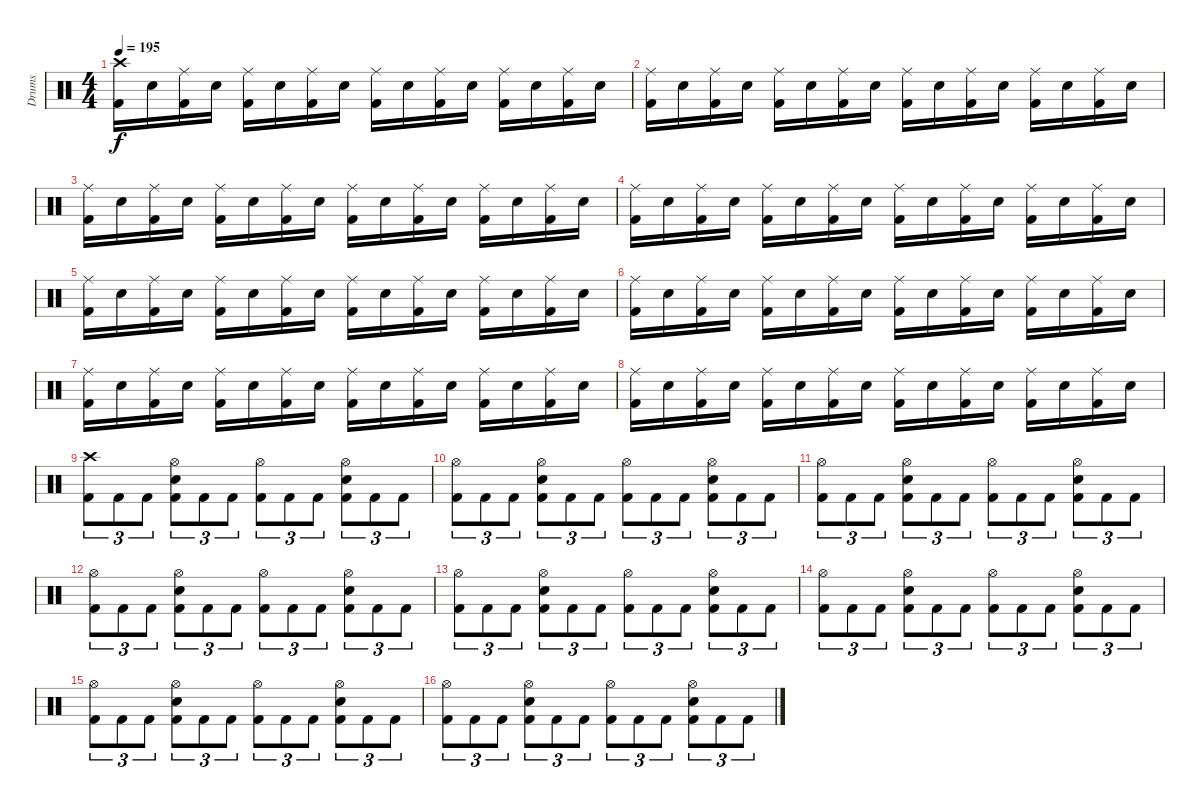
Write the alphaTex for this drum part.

\track ("Drums" "Drums") {instrument percussion}
\staff {score}
\articulation defaults
\ts (4 4)
\tempo 195
\clef neutral
\ks c
("Crash high (hit)" "Kick (hit) 2").16{dy f} "Snare (hit) 2".16 ("Ride (middle)" "Kick (hit) 2").16 "Snare (hit) 2".16 ("Ride (middle)" "Kick (hit) 2").16 "Snare (hit) 2".16 ("Ride (middle)" "Kick (hit) 2").16 "Snare (hit) 2".16 ("Ride (middle)" "Kick (hit) 2").16 "Snare (hit) 2".16 ("Ride (middle)" "Kick (hit) 2").16 "Snare (hit) 2".16 ("Ride (middle)" "Kick (hit) 2").16 "Snare (hit) 2".16 ("Ride (middle)" "Kick (hit) 2").16 "Snare (hit) 2".16 |
("Ride (middle)" "Kick (hit) 2").16 "Snare (hit) 2".16 ("Ride (middle)" "Kick (hit) 2").16 "Snare (hit) 2".16 ("Ride (middle)" "Kick (hit) 2").16 "Snare (hit) 2".16 ("Ride (middle)" "Kick (hit) 2").16 "Snare (hit) 2".16 ("Ride (middle)" "Kick (hit) 2").16 "Snare (hit) 2".16 ("Ride (middle)" "Kick (hit) 2").16 "Snare (hit) 2".16 ("Ride (middle)" "Kick (hit) 2").16 "Snare (hit) 2".16 ("Ride (middle)" "Kick (hit) 2").16 "Snare (hit) 2".16 |
("Ride (middle)" "Kick (hit) 2").16 "Snare (hit) 2".16 ("Ride (middle)" "Kick (hit) 2").16 "Snare (hit) 2".16 ("Ride (middle)" "Kick (hit) 2").16 "Snare (hit) 2".16 ("Ride (middle)" "Kick (hit) 2").16 "Snare (hit) 2".16 ("Ride (middle)" "Kick (hit) 2").16 "Snare (hit) 2".16 ("Ride (middle)" "Kick (hit) 2").16 "Snare (hit) 2".16 ("Ride (middle)" "Kick (hit) 2").16 "Snare (hit) 2".16 ("Ride (middle)" "Kick (hit) 2").16 "Snare (hit) 2".16 |
("Ride (middle)" "Kick (hit) 2").16 "Snare (hit) 2".16 ("Ride (middle)" "Kick (hit) 2").16 "Snare (hit) 2".16 ("Ride (middle)" "Kick (hit) 2").16 "Snare (hit) 2".16 ("Ride (middle)" "Kick (hit) 2").16 "Snare (hit) 2".16 ("Ride (middle)" "Kick (hit) 2").16 "Snare (hit) 2".16 ("Ride (middle)" "Kick (hit) 2").16 "Snare (hit) 2".16 ("Ride (middle)" "Kick (hit) 2").16 "Snare (hit) 2".16 ("Ride (middle)" "Kick (hit) 2").16 "Snare (hit) 2".16 |
("Ride (middle)" "Kick (hit) 2").16 "Snare (hit) 2".16 ("Ride (middle)" "Kick (hit) 2").16 "Snare (hit) 2".16 ("Ride (middle)" "Kick (hit) 2").16 "Snare (hit) 2".16 ("Ride (middle)" "Kick (hit) 2").16 "Snare (hit) 2".16 ("Ride (middle)" "Kick (hit) 2").16 "Snare (hit) 2".16 ("Ride (middle)" "Kick (hit) 2").16 "Snare (hit) 2".16 ("Ride (middle)" "Kick (hit) 2").16 "Snare (hit) 2".16 ("Ride (middle)" "Kick (hit) 2").16 "Snare (hit) 2".16 |
("Ride (middle)" "Kick (hit) 2").16 "Snare (hit) 2".16 ("Ride (middle)" "Kick (hit) 2").16 "Snare (hit) 2".16 ("Ride (middle)" "Kick (hit) 2").16 "Snare (hit) 2".16 ("Ride (middle)" "Kick (hit) 2").16 "Snare (hit) 2".16 ("Ride (middle)" "Kick (hit) 2").16 "Snare (hit) 2".16 ("Ride (middle)" "Kick (hit) 2").16 "Snare (hit) 2".16 ("Ride (middle)" "Kick (hit) 2").16 "Snare (hit) 2".16 ("Ride (middle)" "Kick (hit) 2").16 "Snare (hit) 2".16 |
("Ride (middle)" "Kick (hit) 2").16 "Snare (hit) 2".16 ("Ride (middle)" "Kick (hit) 2").16 "Snare (hit) 2".16 ("Ride (middle)" "Kick (hit) 2").16 "Snare (hit) 2".16 ("Ride (middle)" "Kick (hit) 2").16 "Snare (hit) 2".16 ("Ride (middle)" "Kick (hit) 2").16 "Snare (hit) 2".16 ("Ride (middle)" "Kick (hit) 2").16 "Snare (hit) 2".16 ("Ride (middle)" "Kick (hit) 2").16 "Snare (hit) 2".16 ("Ride (middle)" "Kick (hit) 2").16 "Snare (hit) 2".16 |
("Ride (middle)" "Kick (hit) 2").16 "Snare (hit) 2".16 ("Ride (middle)" "Kick (hit) 2").16 "Snare (hit) 2".16 ("Ride (middle)" "Kick (hit) 2").16 "Snare (hit) 2".16 ("Ride (middle)" "Kick (hit) 2").16 "Snare (hit) 2".16 ("Ride (middle)" "Kick (hit) 2").16 "Snare (hit) 2".16 ("Ride (middle)" "Kick (hit) 2").16 "Snare (hit) 2".16 ("Ride (middle)" "Kick (hit) 2").16 "Snare (hit) 2".16 ("Ride (middle)" "Kick (hit) 2").16 "Snare (hit) 2".16 |
("Crash high (hit)" "Kick (hit) 2").8{tu (3 2)} "Kick (hit) 2".8{tu (3 2)} "Kick (hit) 2".8{tu (3 2)} ("Hi-Hat (open)" "Snare (hit) 2" "Kick (hit) 2").8{tu (3 2)} "Kick (hit) 2".8{tu (3 2)} "Kick (hit) 2".8{tu (3 2)} ("Hi-Hat (open)" "Kick (hit) 2").8{tu (3 2)} "Kick (hit) 2".8{tu (3 2)} "Kick (hit) 2".8{tu (3 2)} ("Hi-Hat (open)" "Snare (hit) 2" "Kick (hit) 2").8{tu (3 2)} "Kick (hit) 2".8{tu (3 2)} "Kick (hit) 2".8{tu (3 2)} |
("Hi-Hat (open)" "Kick (hit) 2").8{tu (3 2)} "Kick (hit) 2".8{tu (3 2)} "Kick (hit) 2".8{tu (3 2)} ("Hi-Hat (open)" "Snare (hit) 2" "Kick (hit) 2").8{tu (3 2)} "Kick (hit) 2".8{tu (3 2)} "Kick (hit) 2".8{tu (3 2)} ("Hi-Hat (open)" "Kick (hit) 2").8{tu (3 2)} "Kick (hit) 2".8{tu (3 2)} "Kick (hit) 2".8{tu (3 2)} ("Hi-Hat (open)" "Snare (hit) 2" "Kick (hit) 2").8{tu (3 2)} "Kick (hit) 2".8{tu (3 2)} "Kick (hit) 2".8{tu (3 2)} |
("Hi-Hat (open)" "Kick (hit) 2").8{tu (3 2)} "Kick (hit) 2".8{tu (3 2)} "Kick (hit) 2".8{tu (3 2)} ("Hi-Hat (open)" "Snare (hit) 2" "Kick (hit) 2").8{tu (3 2)} "Kick (hit) 2".8{tu (3 2)} "Kick (hit) 2".8{tu (3 2)} ("Hi-Hat (open)" "Kick (hit) 2").8{tu (3 2)} "Kick (hit) 2".8{tu (3 2)} "Kick (hit) 2".8{tu (3 2)} ("Hi-Hat (open)" "Snare (hit) 2" "Kick (hit) 2").8{tu (3 2)} "Kick (hit) 2".8{tu (3 2)} "Kick (hit) 2".8{tu (3 2)} |
("Hi-Hat (open)" "Kick (hit) 2").8{tu (3 2)} "Kick (hit) 2".8{tu (3 2)} "Kick (hit) 2".8{tu (3 2)} ("Hi-Hat (open)" "Snare (hit) 2" "Kick (hit) 2").8{tu (3 2)} "Kick (hit) 2".8{tu (3 2)} "Kick (hit) 2".8{tu (3 2)} ("Hi-Hat (open)" "Kick (hit) 2").8{tu (3 2)} "Kick (hit) 2".8{tu (3 2)} "Kick (hit) 2".8{tu (3 2)} ("Hi-Hat (open)" "Snare (hit) 2" "Kick (hit) 2").8{tu (3 2)} "Kick (hit) 2".8{tu (3 2)} "Kick (hit) 2".8{tu (3 2)} |
("Hi-Hat (open)" "Kick (hit) 2").8{tu (3 2)} "Kick (hit) 2".8{tu (3 2)} "Kick (hit) 2".8{tu (3 2)} ("Hi-Hat (open)" "Snare (hit) 2" "Kick (hit) 2").8{tu (3 2)} "Kick (hit) 2".8{tu (3 2)} "Kick (hit) 2".8{tu (3 2)} ("Hi-Hat (open)" "Kick (hit) 2").8{tu (3 2)} "Kick (hit) 2".8{tu (3 2)} "Kick (hit) 2".8{tu (3 2)} ("Hi-Hat (open)" "Snare (hit) 2" "Kick (hit) 2").8{tu (3 2)} "Kick (hit) 2".8{tu (3 2)} "Kick (hit) 2".8{tu (3 2)} |
("Hi-Hat (open)" "Kick (hit) 2").8{tu (3 2)} "Kick (hit) 2".8{tu (3 2)} "Kick (hit) 2".8{tu (3 2)} ("Hi-Hat (open)" "Snare (hit) 2" "Kick (hit) 2").8{tu (3 2)} "Kick (hit) 2".8{tu (3 2)} "Kick (hit) 2".8{tu (3 2)} ("Hi-Hat (open)" "Kick (hit) 2").8{tu (3 2)} "Kick (hit) 2".8{tu (3 2)} "Kick (hit) 2".8{tu (3 2)} ("Hi-Hat (open)" "Snare (hit) 2" "Kick (hit) 2").8{tu (3 2)} "Kick (hit) 2".8{tu (3 2)} "Kick (hit) 2".8{tu (3 2)} |
("Hi-Hat (open)" "Kick (hit) 2").8{tu (3 2)} "Kick (hit) 2".8{tu (3 2)} "Kick (hit) 2".8{tu (3 2)} ("Hi-Hat (open)" "Snare (hit) 2" "Kick (hit) 2").8{tu (3 2)} "Kick (hit) 2".8{tu (3 2)} "Kick (hit) 2".8{tu (3 2)} ("Hi-Hat (open)" "Kick (hit) 2").8{tu (3 2)} "Kick (hit) 2".8{tu (3 2)} "Kick (hit) 2".8{tu (3 2)} ("Hi-Hat (open)" "Snare (hit) 2" "Kick (hit) 2").8{tu (3 2)} "Kick (hit) 2".8{tu (3 2)} "Kick (hit) 2".8{tu (3 2)} |
("Hi-Hat (open)" "Kick (hit) 2").8{tu (3 2)} "Kick (hit) 2".8{tu (3 2)} "Kick (hit) 2".8{tu (3 2)} ("Hi-Hat (open)" "Snare (hit) 2" "Kick (hit) 2").8{tu (3 2)} "Kick (hit) 2".8{tu (3 2)} "Kick (hit) 2".8{tu (3 2)} ("Hi-Hat (open)" "Kick (hit) 2").8{tu (3 2)} "Kick (hit) 2".8{tu (3 2)} "Kick (hit) 2".8{tu (3 2)} ("Hi-Hat (open)" "Snare (hit) 2" "Kick (hit) 2").8{tu (3 2)} "Kick (hit) 2".8{tu (3 2)} "Kick (hit) 2".8{tu (3 2)}
